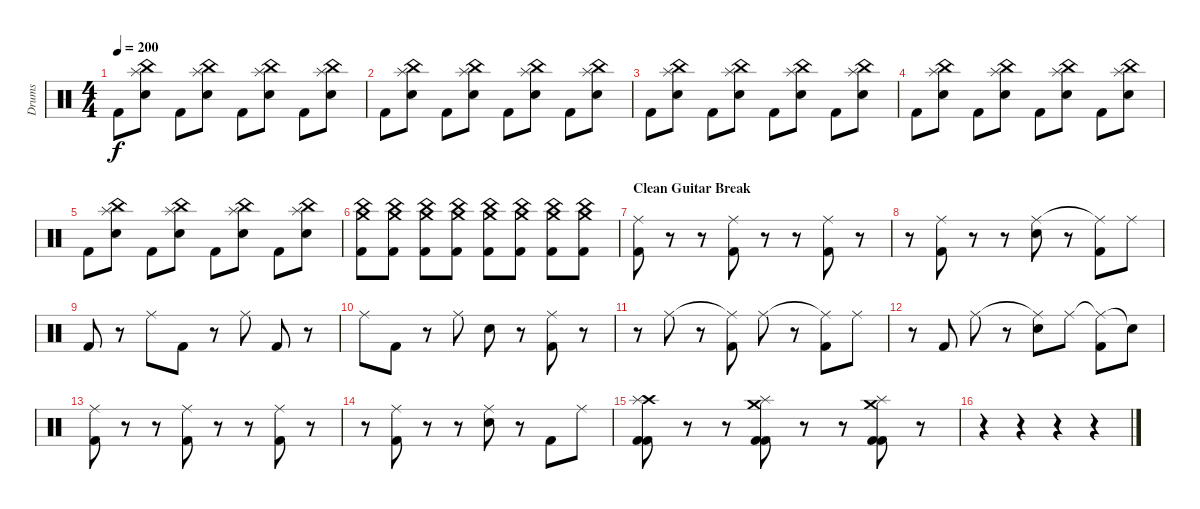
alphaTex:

\track ("Drums" "Drums") {instrument percussion}
\staff {score}
\articulation defaults
\ts (4 4)
\tempo 200
\clef neutral
\ks c "Kick (hit) 2".8{dy f}
("China (hit)" "Splash (hit)" "Snare (hit) 2").8 "Kick (hit) 2".8 ("China (hit)" "Splash (hit)" "Snare (hit) 2").8 "Kick (hit) 2".8 ("China (hit)" "Splash (hit)" "Snare (hit) 2").8 "Kick (hit) 2".8 ("China (hit)" "Splash (hit)" "Snare (hit) 2").8 |
"Kick (hit) 2".8 ("China (hit)" "Splash (hit)" "Snare (hit) 2").8 "Kick (hit) 2".8 ("China (hit)" "Splash (hit)" "Snare (hit) 2").8 "Kick (hit) 2".8 ("China (hit)" "Splash (hit)" "Snare (hit) 2").8 "Kick (hit) 2".8 ("China (hit)" "Splash (hit)" "Snare (hit) 2").8 |
"Kick (hit) 2".8 ("China (hit)" "Splash (hit)" "Snare (hit) 2").8 "Kick (hit) 2".8 ("China (hit)" "Splash (hit)" "Snare (hit) 2").8 "Kick (hit) 2".8 ("China (hit)" "Splash (hit)" "Snare (hit) 2").8 "Kick (hit) 2".8 ("China (hit)" "Splash (hit)" "Snare (hit) 2").8 |
"Kick (hit) 2".8 ("China (hit)" "Splash (hit)" "Snare (hit) 2").8 "Kick (hit) 2".8 ("China (hit)" "Splash (hit)" "Snare (hit) 2").8 "Kick (hit) 2".8 ("China (hit)" "Splash (hit)" "Snare (hit) 2").8 "Kick (hit) 2".8 ("China (hit)" "Splash (hit)" "Snare (hit) 2").8 |
"Kick (hit) 2".8 ("China (hit)" "Splash (hit)" "Snare (hit) 2").8 "Kick (hit) 2".8 ("China (hit)" "Splash (hit)" "Snare (hit) 2").8 "Kick (hit) 2".8 ("China (hit)" "Splash (hit)" "Snare (hit) 2").8 "Kick (hit) 2".8 ("China (hit)" "Splash (hit)" "Snare (hit) 2").8 |
("China (hit)" "Crash medium (hit)" "Kick (hit) 2").8 ("China (hit)" "Crash medium (hit)" "Kick (hit) 2").8 ("China (hit)" "Crash medium (hit)" "Kick (hit) 2").8 ("China (hit)" "Crash medium (hit)" "Kick (hit) 2").8 ("China (hit)" "Crash medium (hit)" "Kick (hit) 2").8 ("China (hit)" "Crash medium (hit)" "Kick (hit) 2").8 ("China (hit)" "Crash medium (hit)" "Kick (hit) 2").8 ("China (hit)" "Crash medium (hit)" "Kick (hit) 2").8 |
\section ("" "Clean Guitar Break")
("Ride (middle)" "Kick (hit) 2").8 r.8 r.8 ("Ride (middle)" "Kick (hit) 2").8 r.8 r.8 ("Ride (middle)" "Kick (hit) 2").8 r.8 |
r.8 ("Ride (middle)" "Kick (hit) 2").8 r.8 r.8 ("Ride (middle)" "Snare (hit) 2").8 r.8 ("Ride (middle)"{t} "Kick (hit) 2").8 "Ride (middle)".8 |
"Kick (hit) 2".8 r.8 "Ride (middle)".8 "Kick (hit) 2".8 r.8 "Ride (middle)".8 "Kick (hit) 2".8 r.8 |
"Ride (middle)".8 "Kick (hit) 2".8 r.8 "Ride (middle)".8 "Snare (hit) 2".8 r.8 ("Ride (middle)" "Kick (hit) 2").8 r.8 |
r.8 "Ride (middle)".8 r.8 ("Ride (middle)"{t} "Kick (hit) 2").8 "Ride (middle)".8 r.8 ("Ride (middle)"{t} "Kick (hit) 2").8 "Ride (middle)".8 |
r.8 "Kick (hit) 2".8 "Ride (middle)".8 r.8 ("Ride (middle)"{t} "Snare (hit) 2").8 "Ride (middle)".8 ("Ride (middle)"{t} "Kick (hit) 2").8 "Snare (hit)"{t}.8 |
("Ride (middle)" "Kick (hit) 2").8 r.8 r.8 ("Ride (middle)" "Kick (hit) 2").8 r.8 r.8 ("Ride (middle)" "Kick (hit) 2").8 r.8 |
r.8 ("Ride (middle)" "Kick (hit) 2").8 r.8 r.8 ("Ride (middle)" "Snare (hit) 2").8 r.8 "Kick (hit) 2".8 "Ride (middle)".8 |
("Crash high (hit)" "Splash (hit)" "Kick (hit) 2" "Kick (hit) 2").8 r.8 r.8 ("Crash medium (hit)" "Splash (hit)" "Kick (hit) 2" "Kick (hit) 2").8 r.8 r.8 ("Crash medium (hit)" "Splash (hit)" "Kick (hit) 2" "Kick (hit) 2").8 r.8 |
r.4 r.4 r.4 r.4
